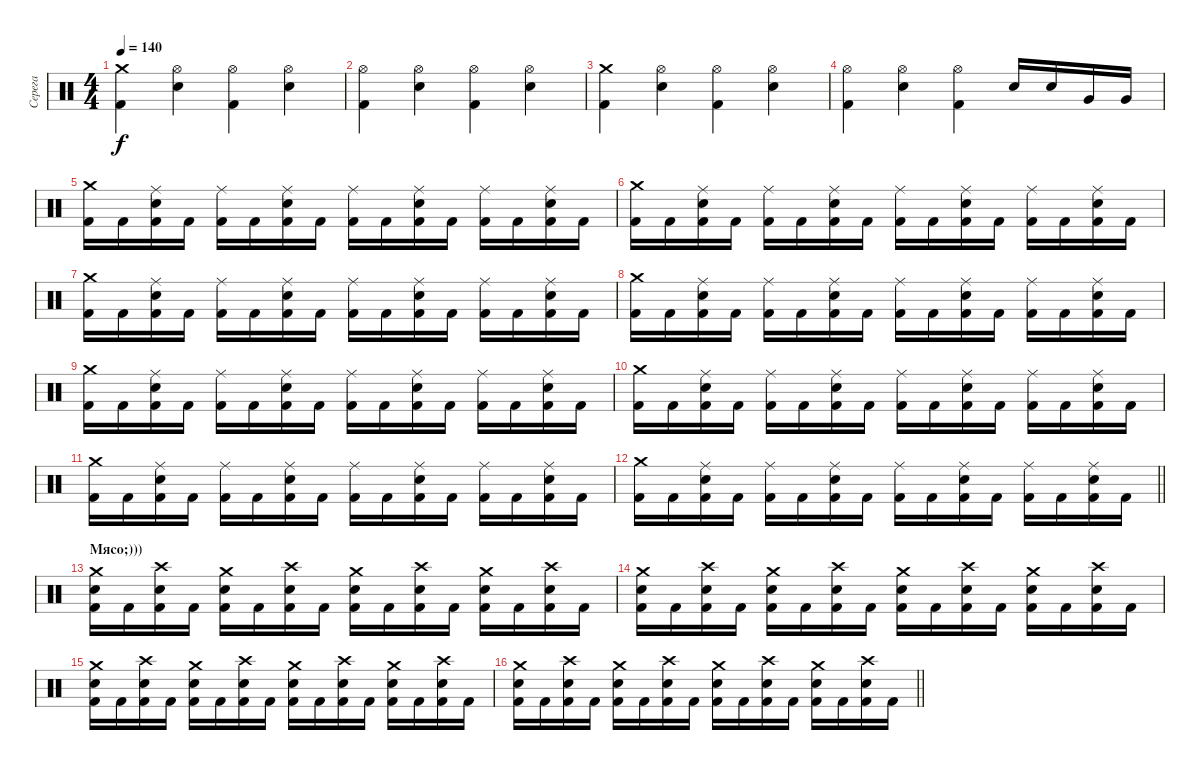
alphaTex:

\track ("Серега" "Серега") {instrument percussion}
\staff {score}
\articulation defaults
\ts (4 4)
\tempo 140
\clef neutral
\ks c
("Crash medium (hit)" "Kick (hit) 2").4{dy f} ("Hi-Hat (open)" "Electric Snare (hit)").4 ("Hi-Hat (open)" "Kick (hit) 2").4 ("Hi-Hat (open)" "Electric Snare (hit)").4 |
("Hi-Hat (open)" "Kick (hit) 2").4 ("Hi-Hat (open)" "Electric Snare (hit)").4 ("Hi-Hat (open)" "Kick (hit) 2").4 ("Hi-Hat (open)" "Electric Snare (hit)").4 |
("Crash medium (hit)" "Kick (hit) 2").4 ("Hi-Hat (open)" "Electric Snare (hit)").4 ("Hi-Hat (open)" "Kick (hit) 2").4 ("Hi-Hat (open)" "Electric Snare (hit)").4 |
("Hi-Hat (open)" "Kick (hit) 2").4 ("Hi-Hat (open)" "Electric Snare (hit)").4 ("Hi-Hat (open)" "Kick (hit) 2").4 "Electric Snare (hit)".16 "Electric Snare (hit)".16 "Very Low Tom (hit)".16 "Very Low Tom (hit)".16 |
("Kick (hit) 2" "Crash medium (hit)").16 "Kick (hit) 2".16 ("Kick (hit) 2" "Electric Snare (hit)" "Ride (middle)").16 "Kick (hit) 2".16 ("Kick (hit) 2" "Ride (middle)").16 "Kick (hit) 2".16 ("Kick (hit) 2" "Electric Snare (hit)" "Ride (middle)").16 "Kick (hit) 2".16 ("Kick (hit) 2" "Ride (middle)").16 "Kick (hit) 2".16 ("Kick (hit) 2" "Electric Snare (hit)" "Ride (middle)").16 "Kick (hit) 2".16 ("Kick (hit) 2" "Ride (middle)").16 "Kick (hit) 2".16 ("Kick (hit) 2" "Electric Snare (hit)" "Ride (middle)").16 "Kick (hit) 2".16 |
("Kick (hit) 2" "Crash medium (hit)").16 "Kick (hit) 2".16 ("Kick (hit) 2" "Electric Snare (hit)" "Ride (middle)").16 "Kick (hit) 2".16 ("Kick (hit) 2" "Ride (middle)").16 "Kick (hit) 2".16 ("Kick (hit) 2" "Electric Snare (hit)" "Ride (middle)").16 "Kick (hit) 2".16 ("Kick (hit) 2" "Ride (middle)").16 "Kick (hit) 2".16 ("Kick (hit) 2" "Electric Snare (hit)" "Ride (middle)").16 "Kick (hit) 2".16 ("Kick (hit) 2" "Ride (middle)").16 "Kick (hit) 2".16 ("Kick (hit) 2" "Electric Snare (hit)" "Ride (middle)").16 "Kick (hit) 2".16 |
("Kick (hit) 2" "Crash medium (hit)").16 "Kick (hit) 2".16 ("Kick (hit) 2" "Electric Snare (hit)" "Ride (middle)").16 "Kick (hit) 2".16 ("Kick (hit) 2" "Ride (middle)").16 "Kick (hit) 2".16 ("Kick (hit) 2" "Electric Snare (hit)" "Ride (middle)").16 "Kick (hit) 2".16 ("Kick (hit) 2" "Ride (middle)").16 "Kick (hit) 2".16 ("Kick (hit) 2" "Electric Snare (hit)" "Ride (middle)").16 "Kick (hit) 2".16 ("Kick (hit) 2" "Ride (middle)").16 "Kick (hit) 2".16 ("Kick (hit) 2" "Electric Snare (hit)" "Ride (middle)").16 "Kick (hit) 2".16 |
("Kick (hit) 2" "Crash medium (hit)").16 "Kick (hit) 2".16 ("Kick (hit) 2" "Electric Snare (hit)" "Ride (middle)").16 "Kick (hit) 2".16 ("Kick (hit) 2" "Ride (middle)").16 "Kick (hit) 2".16 ("Kick (hit) 2" "Electric Snare (hit)" "Ride (middle)").16 "Kick (hit) 2".16 ("Kick (hit) 2" "Ride (middle)").16 "Kick (hit) 2".16 ("Kick (hit) 2" "Electric Snare (hit)" "Ride (middle)").16 "Kick (hit) 2".16 ("Kick (hit) 2" "Ride (middle)").16 "Kick (hit) 2".16 ("Kick (hit) 2" "Electric Snare (hit)" "Ride (middle)").16 "Kick (hit) 2".16 |
("Kick (hit) 2" "Crash medium (hit)").16 "Kick (hit) 2".16 ("Kick (hit) 2" "Electric Snare (hit)" "Ride (middle)").16 "Kick (hit) 2".16 ("Kick (hit) 2" "Ride (middle)").16 "Kick (hit) 2".16 ("Kick (hit) 2" "Electric Snare (hit)" "Ride (middle)").16 "Kick (hit) 2".16 ("Kick (hit) 2" "Ride (middle)").16 "Kick (hit) 2".16 ("Kick (hit) 2" "Electric Snare (hit)" "Ride (middle)").16 "Kick (hit) 2".16 ("Kick (hit) 2" "Ride (middle)").16 "Kick (hit) 2".16 ("Kick (hit) 2" "Electric Snare (hit)" "Ride (middle)").16 "Kick (hit) 2".16 |
("Kick (hit) 2" "Crash medium (hit)").16 "Kick (hit) 2".16 ("Kick (hit) 2" "Electric Snare (hit)" "Ride (middle)").16 "Kick (hit) 2".16 ("Kick (hit) 2" "Ride (middle)").16 "Kick (hit) 2".16 ("Kick (hit) 2" "Electric Snare (hit)" "Ride (middle)").16 "Kick (hit) 2".16 ("Kick (hit) 2" "Ride (middle)").16 "Kick (hit) 2".16 ("Kick (hit) 2" "Electric Snare (hit)" "Ride (middle)").16 "Kick (hit) 2".16 ("Kick (hit) 2" "Ride (middle)").16 "Kick (hit) 2".16 ("Kick (hit) 2" "Electric Snare (hit)" "Ride (middle)").16 "Kick (hit) 2".16 |
("Kick (hit) 2" "Crash medium (hit)").16 "Kick (hit) 2".16 ("Kick (hit) 2" "Electric Snare (hit)" "Ride (middle)").16 "Kick (hit) 2".16 ("Kick (hit) 2" "Ride (middle)").16 "Kick (hit) 2".16 ("Kick (hit) 2" "Electric Snare (hit)" "Ride (middle)").16 "Kick (hit) 2".16 ("Kick (hit) 2" "Ride (middle)").16 "Kick (hit) 2".16 ("Kick (hit) 2" "Electric Snare (hit)" "Ride (middle)").16 "Kick (hit) 2".16 ("Kick (hit) 2" "Ride (middle)").16 "Kick (hit) 2".16 ("Kick (hit) 2" "Electric Snare (hit)" "Ride (middle)").16 "Kick (hit) 2".16 |
\barLineRight lightlight
("Kick (hit) 2" "Crash medium (hit)").16 "Kick (hit) 2".16 ("Kick (hit) 2" "Electric Snare (hit)" "Ride (middle)").16 "Kick (hit) 2".16 ("Kick (hit) 2" "Ride (middle)").16 "Kick (hit) 2".16 ("Kick (hit) 2" "Electric Snare (hit)" "Ride (middle)").16 "Kick (hit) 2".16 ("Kick (hit) 2" "Ride (middle)").16 "Kick (hit) 2".16 ("Kick (hit) 2" "Electric Snare (hit)" "Ride (middle)").16 "Kick (hit) 2".16 ("Kick (hit) 2" "Ride (middle)").16 "Kick (hit) 2".16 ("Kick (hit) 2" "Electric Snare (hit)" "Ride (middle)").16 "Kick (hit) 2".16 |
\section ("" "Мясо;)))")
("Crash medium (hit)" "Electric Snare (hit)" "Kick (hit) 2").16 "Kick (hit) 2".16 ("Crash high (hit)" "Electric Snare (hit)" "Kick (hit) 2").16 "Kick (hit) 2".16 ("Crash medium (hit)" "Electric Snare (hit)" "Kick (hit) 2").16 "Kick (hit) 2".16 ("Crash high (hit)" "Electric Snare (hit)" "Kick (hit) 2").16 "Kick (hit) 2".16 ("Crash medium (hit)" "Electric Snare (hit)" "Kick (hit) 2").16 "Kick (hit) 2".16 ("Crash high (hit)" "Electric Snare (hit)" "Kick (hit) 2").16 "Kick (hit) 2".16 ("Crash medium (hit)" "Electric Snare (hit)" "Kick (hit) 2").16 "Kick (hit) 2".16 ("Crash high (hit)" "Electric Snare (hit)" "Kick (hit) 2").16 "Kick (hit) 2".16 |
("Crash medium (hit)" "Electric Snare (hit)" "Kick (hit) 2").16 "Kick (hit) 2".16 ("Crash high (hit)" "Electric Snare (hit)" "Kick (hit) 2").16 "Kick (hit) 2".16 ("Crash medium (hit)" "Electric Snare (hit)" "Kick (hit) 2").16 "Kick (hit) 2".16 ("Crash high (hit)" "Electric Snare (hit)" "Kick (hit) 2").16 "Kick (hit) 2".16 ("Crash medium (hit)" "Electric Snare (hit)" "Kick (hit) 2").16 "Kick (hit) 2".16 ("Crash high (hit)" "Electric Snare (hit)" "Kick (hit) 2").16 "Kick (hit) 2".16 ("Crash medium (hit)" "Electric Snare (hit)" "Kick (hit) 2").16 "Kick (hit) 2".16 ("Crash high (hit)" "Electric Snare (hit)" "Kick (hit) 2").16 "Kick (hit) 2".16 |
("Crash medium (hit)" "Electric Snare (hit)" "Kick (hit) 2").16 "Kick (hit) 2".16 ("Crash high (hit)" "Electric Snare (hit)" "Kick (hit) 2").16 "Kick (hit) 2".16 ("Crash medium (hit)" "Electric Snare (hit)" "Kick (hit) 2").16 "Kick (hit) 2".16 ("Crash high (hit)" "Electric Snare (hit)" "Kick (hit) 2").16 "Kick (hit) 2".16 ("Crash medium (hit)" "Electric Snare (hit)" "Kick (hit) 2").16 "Kick (hit) 2".16 ("Crash high (hit)" "Electric Snare (hit)" "Kick (hit) 2").16 "Kick (hit) 2".16 ("Crash medium (hit)" "Electric Snare (hit)" "Kick (hit) 2").16 "Kick (hit) 2".16 ("Crash high (hit)" "Electric Snare (hit)" "Kick (hit) 2").16 "Kick (hit) 2".16 |
\barLineRight lightlight
("Crash medium (hit)" "Electric Snare (hit)" "Kick (hit) 2").16 "Kick (hit) 2".16 ("Crash high (hit)" "Electric Snare (hit)" "Kick (hit) 2").16 "Kick (hit) 2".16 ("Crash medium (hit)" "Electric Snare (hit)" "Kick (hit) 2").16 "Kick (hit) 2".16 ("Crash high (hit)" "Electric Snare (hit)" "Kick (hit) 2").16 "Kick (hit) 2".16 ("Crash medium (hit)" "Electric Snare (hit)" "Kick (hit) 2").16 "Kick (hit) 2".16 ("Crash high (hit)" "Electric Snare (hit)" "Kick (hit) 2").16 "Kick (hit) 2".16 ("Crash medium (hit)" "Electric Snare (hit)" "Kick (hit) 2").16 "Kick (hit) 2".16 ("Crash high (hit)" "Electric Snare (hit)" "Kick (hit) 2").16 "Kick (hit) 2".16
